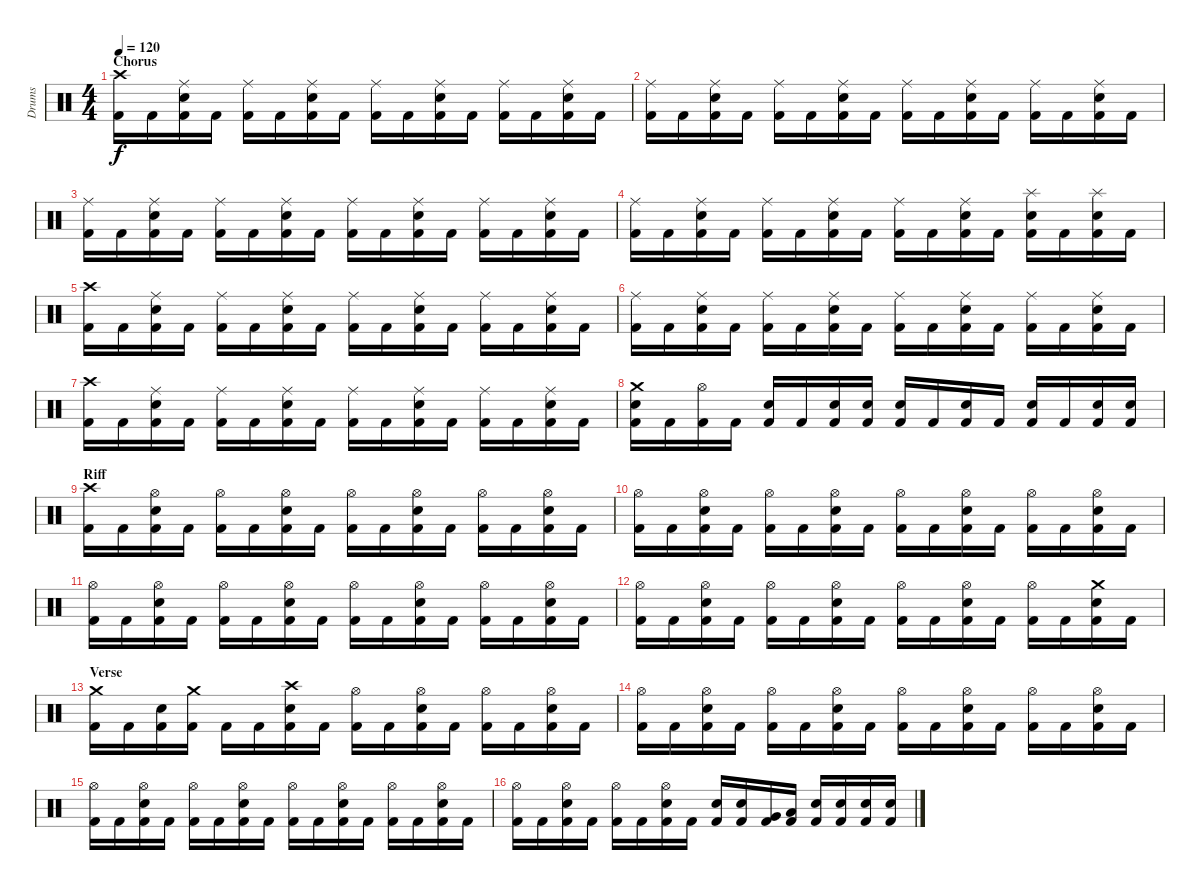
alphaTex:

\track ("Drums" "Drums") {instrument percussion}
\staff {score}
\articulation defaults
\ts (4 4)
\section ("" "Chorus")
\tempo 120
\clef neutral
\ks c
("Crash high (hit)" "Kick (hit) 2").16{dy f} "Kick (hit) 2".16 ("Ride (middle)" "Snare (hit) 2" "Kick (hit) 2").16 "Kick (hit) 2".16 ("Ride (middle)" "Kick (hit) 2").16 "Kick (hit) 2".16 ("Ride (middle)" "Snare (hit) 2" "Kick (hit) 2").16 "Kick (hit) 2".16 ("Ride (middle)" "Kick (hit) 2").16 "Kick (hit) 2".16 ("Ride (middle)" "Snare (hit) 2" "Kick (hit) 2").16 "Kick (hit) 2".16 ("Ride (middle)" "Kick (hit) 2").16 "Kick (hit) 2".16 ("Ride (middle)" "Snare (hit) 2" "Kick (hit) 2").16 "Kick (hit) 2".16 |
("Ride (middle)" "Kick (hit) 2").16 "Kick (hit) 2".16 ("Ride (middle)" "Snare (hit) 2" "Kick (hit) 2").16 "Kick (hit) 2".16 ("Ride (middle)" "Kick (hit) 2").16 "Kick (hit) 2".16 ("Ride (middle)" "Snare (hit) 2" "Kick (hit) 2").16 "Kick (hit) 2".16 ("Ride (middle)" "Kick (hit) 2").16 "Kick (hit) 2".16 ("Ride (middle)" "Snare (hit) 2" "Kick (hit) 2").16 "Kick (hit) 2".16 ("Ride (middle)" "Kick (hit) 2").16 "Kick (hit) 2".16 ("Ride (middle)" "Snare (hit) 2" "Kick (hit) 2").16 "Kick (hit) 2".16 |
("Ride (middle)" "Kick (hit) 2").16 "Kick (hit) 2".16 ("Ride (middle)" "Snare (hit) 2" "Kick (hit) 2").16 "Kick (hit) 2".16 ("Ride (middle)" "Kick (hit) 2").16 "Kick (hit) 2".16 ("Ride (middle)" "Snare (hit) 2" "Kick (hit) 2").16 "Kick (hit) 2".16 ("Ride (middle)" "Kick (hit) 2").16 "Kick (hit) 2".16 ("Ride (middle)" "Snare (hit) 2" "Kick (hit) 2").16 "Kick (hit) 2".16 ("Ride (middle)" "Kick (hit) 2").16 "Kick (hit) 2".16 ("Ride (middle)" "Snare (hit) 2" "Kick (hit) 2").16 "Kick (hit) 2".16 |
("Ride (middle)" "Kick (hit) 2").16 "Kick (hit) 2".16 ("Ride (middle)" "Snare (hit) 2" "Kick (hit) 2").16 "Kick (hit) 2".16 ("Ride (middle)" "Kick (hit) 2").16 "Kick (hit) 2".16 ("Ride (middle)" "Snare (hit) 2" "Kick (hit) 2").16 "Kick (hit) 2".16 ("Ride (middle)" "Kick (hit) 2").16 "Kick (hit) 2".16 ("Ride (middle)" "Snare (hit) 2" "Kick (hit) 2").16 "Kick (hit) 2".16 ("Splash (hit)" "Snare (hit) 2" "Kick (hit) 2").16 "Kick (hit) 2".16 ("Splash (hit)" "Snare (hit) 2" "Kick (hit) 2").16 "Kick (hit) 2".16 |
("Crash high (hit)" "Kick (hit) 2").16 "Kick (hit) 2".16 ("Ride (middle)" "Snare (hit) 2" "Kick (hit) 2").16 "Kick (hit) 2".16 ("Ride (middle)" "Kick (hit) 2").16 "Kick (hit) 2".16 ("Ride (middle)" "Snare (hit) 2" "Kick (hit) 2").16 "Kick (hit) 2".16 ("Ride (middle)" "Kick (hit) 2").16 "Kick (hit) 2".16 ("Ride (middle)" "Snare (hit) 2" "Kick (hit) 2").16 "Kick (hit) 2".16 ("Ride (middle)" "Kick (hit) 2").16 "Kick (hit) 2".16 ("Ride (middle)" "Snare (hit) 2" "Kick (hit) 2").16 "Kick (hit) 2".16 |
("Ride (middle)" "Kick (hit) 2").16 "Kick (hit) 2".16 ("Ride (middle)" "Snare (hit) 2" "Kick (hit) 2").16 "Kick (hit) 2".16 ("Ride (middle)" "Kick (hit) 2").16 "Kick (hit) 2".16 ("Ride (middle)" "Snare (hit) 2" "Kick (hit) 2").16 "Kick (hit) 2".16 ("Ride (middle)" "Kick (hit) 2").16 "Kick (hit) 2".16 ("Ride (middle)" "Snare (hit) 2" "Kick (hit) 2").16 "Kick (hit) 2".16 ("Ride (middle)" "Kick (hit) 2").16 "Kick (hit) 2".16 ("Ride (middle)" "Snare (hit) 2" "Kick (hit) 2").16 "Kick (hit) 2".16 |
("Crash high (hit)" "Kick (hit) 2").16 "Kick (hit) 2".16 ("Ride (middle)" "Snare (hit) 2" "Kick (hit) 2").16 "Kick (hit) 2".16 ("Ride (middle)" "Kick (hit) 2").16 "Kick (hit) 2".16 ("Ride (middle)" "Snare (hit) 2" "Kick (hit) 2").16 "Kick (hit) 2".16 ("Ride (middle)" "Kick (hit) 2").16 "Kick (hit) 2".16 ("Ride (middle)" "Snare (hit) 2" "Kick (hit) 2").16 "Kick (hit) 2".16 ("Ride (middle)" "Kick (hit) 2").16 "Kick (hit) 2".16 ("Ride (middle)" "Snare (hit) 2" "Kick (hit) 2").16 "Kick (hit) 2".16 |
("Crash medium (hit)" "Snare (hit) 2" "Kick (hit) 2").16 "Kick (hit) 2".16 ("Hi-Hat (open)" "Kick (hit) 2").16 "Kick (hit) 2".16 ("Snare (hit) 2" "Kick (hit) 2").16 "Kick (hit) 2".16 ("Snare (hit) 2" "Kick (hit) 2").16 ("Snare (hit) 2" "Kick (hit) 2").16 ("Snare (hit) 2" "Kick (hit) 2").16 "Kick (hit) 2".16 ("Snare (hit) 2" "Kick (hit) 2").16 "Kick (hit) 2".16 ("Snare (hit) 2" "Kick (hit) 2").16 "Kick (hit) 2".16 ("Snare (hit) 2" "Kick (hit) 2").16 ("Snare (hit) 2" "Kick (hit) 2").16 |
\section ("" "Riff")
("Crash high (hit)" "Kick (hit) 2").16 "Kick (hit) 2".16 ("Hi-Hat (open)" "Snare (hit) 2" "Kick (hit) 2").16 "Kick (hit) 2".16 ("Hi-Hat (open)" "Kick (hit) 2").16 "Kick (hit) 2".16 ("Hi-Hat (open)" "Snare (hit) 2" "Kick (hit) 2").16 "Kick (hit) 2".16 ("Hi-Hat (open)" "Kick (hit) 2").16 "Kick (hit) 2".16 ("Hi-Hat (open)" "Snare (hit) 2" "Kick (hit) 2").16 "Kick (hit) 2".16 ("Hi-Hat (open)" "Kick (hit) 2").16 "Kick (hit) 2".16 ("Hi-Hat (open)" "Snare (hit) 2" "Kick (hit) 2").16 "Kick (hit) 2".16 |
("Hi-Hat (open)" "Kick (hit) 2").16 "Kick (hit) 2".16 ("Hi-Hat (open)" "Snare (hit) 2" "Kick (hit) 2").16 "Kick (hit) 2".16 ("Hi-Hat (open)" "Kick (hit) 2").16 "Kick (hit) 2".16 ("Hi-Hat (open)" "Snare (hit) 2" "Kick (hit) 2").16 "Kick (hit) 2".16 ("Hi-Hat (open)" "Kick (hit) 2").16 "Kick (hit) 2".16 ("Hi-Hat (open)" "Snare (hit) 2" "Kick (hit) 2").16 "Kick (hit) 2".16 ("Hi-Hat (open)" "Kick (hit) 2").16 "Kick (hit) 2".16 ("Hi-Hat (open)" "Snare (hit) 2" "Kick (hit) 2").16 "Kick (hit) 2".16 |
("Hi-Hat (open)" "Kick (hit) 2").16 "Kick (hit) 2".16 ("Hi-Hat (open)" "Snare (hit) 2" "Kick (hit) 2").16 "Kick (hit) 2".16 ("Hi-Hat (open)" "Kick (hit) 2").16 "Kick (hit) 2".16 ("Hi-Hat (open)" "Snare (hit) 2" "Kick (hit) 2").16 "Kick (hit) 2".16 ("Hi-Hat (open)" "Kick (hit) 2").16 "Kick (hit) 2".16 ("Hi-Hat (open)" "Snare (hit) 2" "Kick (hit) 2").16 "Kick (hit) 2".16 ("Hi-Hat (open)" "Kick (hit) 2").16 "Kick (hit) 2".16 ("Hi-Hat (open)" "Snare (hit) 2" "Kick (hit) 2").16 "Kick (hit) 2".16 |
("Hi-Hat (open)" "Kick (hit) 2").16 "Kick (hit) 2".16 ("Hi-Hat (open)" "Snare (hit) 2" "Kick (hit) 2").16 "Kick (hit) 2".16 ("Hi-Hat (open)" "Kick (hit) 2").16 "Kick (hit) 2".16 ("Hi-Hat (open)" "Snare (hit) 2" "Kick (hit) 2").16 "Kick (hit) 2".16 ("Hi-Hat (open)" "Kick (hit) 2").16 "Kick (hit) 2".16 ("Hi-Hat (open)" "Snare (hit) 2" "Kick (hit) 2").16 "Kick (hit) 2".16 ("Hi-Hat (open)" "Kick (hit) 2").16 "Kick (hit) 2".16 ("Crash medium (hit)" "Snare (hit) 2" "Kick (hit) 2").16 "Kick (hit) 2".16 |
\section ("" "Verse")
("Crash medium (hit)" "Kick (hit) 2").16 "Kick (hit) 2".16 ("Snare (hit) 2" "Kick (hit) 2").16 ("Crash medium (hit)" "Kick (hit) 2").16 "Kick (hit) 2".16 "Kick (hit) 2".16 ("Crash high (hit)" "Snare (hit) 2" "Kick (hit) 2").16 "Kick (hit) 2".16 ("Hi-Hat (open)" "Kick (hit) 2").16 "Kick (hit) 2".16 ("Hi-Hat (open)" "Snare (hit) 2" "Kick (hit) 2").16 "Kick (hit) 2".16 ("Hi-Hat (open)" "Kick (hit) 2").16 "Kick (hit) 2".16 ("Hi-Hat (open)" "Snare (hit) 2" "Kick (hit) 2").16 "Kick (hit) 2".16 |
("Hi-Hat (open)" "Kick (hit) 2").16 "Kick (hit) 2".16 ("Hi-Hat (open)" "Snare (hit) 2" "Kick (hit) 2").16 "Kick (hit) 2".16 ("Hi-Hat (open)" "Kick (hit) 2").16 "Kick (hit) 2".16 ("Hi-Hat (open)" "Snare (hit) 2" "Kick (hit) 2").16 "Kick (hit) 2".16 ("Hi-Hat (open)" "Kick (hit) 2").16 "Kick (hit) 2".16 ("Hi-Hat (open)" "Snare (hit) 2" "Kick (hit) 2").16 "Kick (hit) 2".16 ("Hi-Hat (open)" "Kick (hit) 2").16 "Kick (hit) 2".16 ("Hi-Hat (open)" "Snare (hit) 2" "Kick (hit) 2").16 "Kick (hit) 2".16 |
("Hi-Hat (open)" "Kick (hit) 2").16 "Kick (hit) 2".16 ("Hi-Hat (open)" "Snare (hit) 2" "Kick (hit) 2").16 "Kick (hit) 2".16 ("Hi-Hat (open)" "Kick (hit) 2").16 "Kick (hit) 2".16 ("Hi-Hat (open)" "Snare (hit) 2" "Kick (hit) 2").16 "Kick (hit) 2".16 ("Hi-Hat (open)" "Kick (hit) 2").16 "Kick (hit) 2".16 ("Hi-Hat (open)" "Snare (hit) 2" "Kick (hit) 2").16 "Kick (hit) 2".16 ("Hi-Hat (open)" "Kick (hit) 2").16 "Kick (hit) 2".16 ("Hi-Hat (open)" "Snare (hit) 2" "Kick (hit) 2").16 "Kick (hit) 2".16 |
("Hi-Hat (open)" "Kick (hit) 2").16 "Kick (hit) 2".16 ("Hi-Hat (open)" "Snare (hit) 2" "Kick (hit) 2").16 "Kick (hit) 2".16 ("Hi-Hat (open)" "Kick (hit) 2").16 "Kick (hit) 2".16 ("Hi-Hat (open)" "Snare (hit) 2" "Kick (hit) 2").16 "Kick (hit) 2".16 ("Snare (hit) 2" "Kick (hit) 2").16 ("Snare (hit) 2" "Kick (hit) 2").16 ("Very Low Tom (hit)" "Kick (hit) 2").16 ("Low Floor Tom (hit)" "Kick (hit) 2").16 ("Snare (hit) 2" "Kick (hit) 2").16 ("Snare (hit) 2" "Kick (hit) 2").16 ("Snare (hit) 2" "Kick (hit) 2").16 ("Snare (hit) 2" "Kick (hit) 2").16
